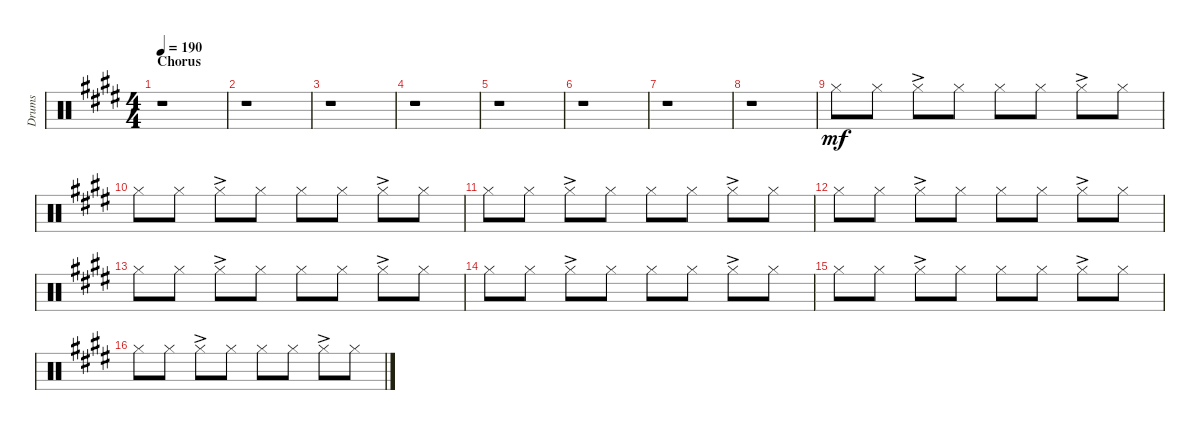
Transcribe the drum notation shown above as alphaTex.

\track ("Drums" "Drums") {instrument percussion}
\staff {score}
\articulation defaults
\ts (4 4)
\section ("" "Chorus")
\tempo 190
\clef neutral
\ks e
r.1{dy mf} |
r.1 |
r.1 |
r.1 |
r.1 |
r.1 |
r.1 |
r.1 |
"Hi-Hat (closed)".8 "Hi-Hat (closed)".8 "Hi-Hat (closed)"{ac}.8 "Hi-Hat (closed)".8 "Hi-Hat (closed)".8 "Hi-Hat (closed)".8 "Hi-Hat (closed)"{ac}.8 "Hi-Hat (closed)".8 |
"Hi-Hat (closed)".8 "Hi-Hat (closed)".8 "Hi-Hat (closed)"{ac}.8 "Hi-Hat (closed)".8 "Hi-Hat (closed)".8 "Hi-Hat (closed)".8 "Hi-Hat (closed)"{ac}.8 "Hi-Hat (closed)".8 |
"Hi-Hat (closed)".8 "Hi-Hat (closed)".8 "Hi-Hat (closed)"{ac}.8 "Hi-Hat (closed)".8 "Hi-Hat (closed)".8 "Hi-Hat (closed)".8 "Hi-Hat (closed)"{ac}.8 "Hi-Hat (closed)".8 |
"Hi-Hat (closed)".8 "Hi-Hat (closed)".8 "Hi-Hat (closed)"{ac}.8 "Hi-Hat (closed)".8 "Hi-Hat (closed)".8 "Hi-Hat (closed)".8 "Hi-Hat (closed)"{ac}.8 "Hi-Hat (closed)".8 |
"Hi-Hat (closed)".8 "Hi-Hat (closed)".8 "Hi-Hat (closed)"{ac}.8 "Hi-Hat (closed)".8 "Hi-Hat (closed)".8 "Hi-Hat (closed)".8 "Hi-Hat (closed)"{ac}.8 "Hi-Hat (closed)".8 |
"Hi-Hat (closed)".8 "Hi-Hat (closed)".8 "Hi-Hat (closed)"{ac}.8 "Hi-Hat (closed)".8 "Hi-Hat (closed)".8 "Hi-Hat (closed)".8 "Hi-Hat (closed)"{ac}.8 "Hi-Hat (closed)".8 |
"Hi-Hat (closed)".8 "Hi-Hat (closed)".8 "Hi-Hat (closed)"{ac}.8 "Hi-Hat (closed)".8 "Hi-Hat (closed)".8 "Hi-Hat (closed)".8 "Hi-Hat (closed)"{ac}.8 "Hi-Hat (closed)".8 |
"Hi-Hat (closed)".8 "Hi-Hat (closed)".8 "Hi-Hat (closed)"{ac}.8 "Hi-Hat (closed)".8 "Hi-Hat (closed)".8 "Hi-Hat (closed)".8 "Hi-Hat (closed)"{ac}.8 "Hi-Hat (closed)".8
